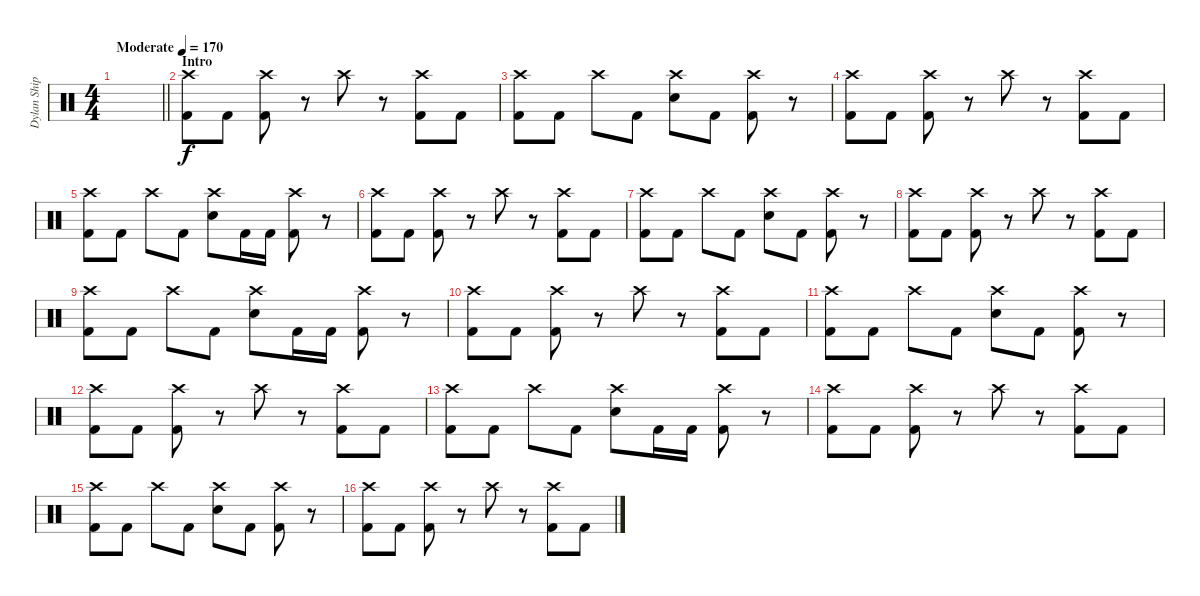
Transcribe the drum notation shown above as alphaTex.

\track ("Dylan Shippey" "Dylan Ship") {instrument percussion}
\staff {score}
\articulation defaults
\ts (4 4)
\tempo (170 "Moderate")
\clef neutral
\barLineRight lightlight
\ks c
|
\section ("" "Intro")
("Crash high (hit)" "Kick (hit) 2").8 "Kick (hit) 2".8 ("Crash high (hit)" "Kick (hit) 2").8 r.8 "Crash high (hit)".8 r.8 ("Crash high (hit)" "Kick (hit) 2").8 "Kick (hit) 2".8 |
("Crash high (hit)" "Kick (hit) 2").8 "Kick (hit) 2".8 "Crash high (hit)".8 "Kick (hit) 2".8 ("Crash high (hit)" "Electric Snare (hit)").8 "Kick (hit) 2".8 ("Crash high (hit)" "Kick (hit) 2").8 r.8 |
("Crash high (hit)" "Kick (hit) 2").8 "Kick (hit) 2".8 ("Crash high (hit)" "Kick (hit) 2").8 r.8 "Crash high (hit)".8 r.8 ("Crash high (hit)" "Kick (hit) 2").8 "Kick (hit) 2".8 |
("Crash high (hit)" "Kick (hit) 2").8 "Kick (hit) 2".8 "Crash high (hit)".8 "Kick (hit) 2".8 ("Crash high (hit)" "Electric Snare (hit)").8 "Kick (hit) 2".16 "Kick (hit) 2".16 ("Crash high (hit)" "Kick (hit) 2").8 r.8 |
("Crash high (hit)" "Kick (hit) 2").8 "Kick (hit) 2".8 ("Crash high (hit)" "Kick (hit) 2").8 r.8 "Crash high (hit)".8 r.8 ("Crash high (hit)" "Kick (hit) 2").8 "Kick (hit) 2".8 |
("Crash high (hit)" "Kick (hit) 2").8 "Kick (hit) 2".8 "Crash high (hit)".8 "Kick (hit) 2".8 ("Crash high (hit)" "Electric Snare (hit)").8 "Kick (hit) 2".8 ("Crash high (hit)" "Kick (hit) 2").8 r.8 |
("Crash high (hit)" "Kick (hit) 2").8 "Kick (hit) 2".8 ("Crash high (hit)" "Kick (hit) 2").8 r.8 "Crash high (hit)".8 r.8 ("Crash high (hit)" "Kick (hit) 2").8 "Kick (hit) 2".8 |
("Crash high (hit)" "Kick (hit) 2").8 "Kick (hit) 2".8 "Crash high (hit)".8 "Kick (hit) 2".8 ("Crash high (hit)" "Electric Snare (hit)").8 "Kick (hit) 2".16 "Kick (hit) 2".16 ("Crash high (hit)" "Kick (hit) 2").8 r.8 |
("Crash high (hit)" "Kick (hit) 2").8 "Kick (hit) 2".8 ("Crash high (hit)" "Kick (hit) 2").8 r.8 "Crash high (hit)".8 r.8 ("Crash high (hit)" "Kick (hit) 2").8 "Kick (hit) 2".8 |
("Crash high (hit)" "Kick (hit) 2").8 "Kick (hit) 2".8 "Crash high (hit)".8 "Kick (hit) 2".8 ("Crash high (hit)" "Electric Snare (hit)").8 "Kick (hit) 2".8 ("Crash high (hit)" "Kick (hit) 2").8 r.8 |
("Crash high (hit)" "Kick (hit) 2").8 "Kick (hit) 2".8 ("Crash high (hit)" "Kick (hit) 2").8 r.8 "Crash high (hit)".8 r.8 ("Crash high (hit)" "Kick (hit) 2").8 "Kick (hit) 2".8 |
("Crash high (hit)" "Kick (hit) 2").8 "Kick (hit) 2".8 "Crash high (hit)".8 "Kick (hit) 2".8 ("Crash high (hit)" "Electric Snare (hit)").8 "Kick (hit) 2".16 "Kick (hit) 2".16 ("Crash high (hit)" "Kick (hit) 2").8 r.8 |
("Crash high (hit)" "Kick (hit) 2").8 "Kick (hit) 2".8 ("Crash high (hit)" "Kick (hit) 2").8 r.8 "Crash high (hit)".8 r.8 ("Crash high (hit)" "Kick (hit) 2").8 "Kick (hit) 2".8 |
("Crash high (hit)" "Kick (hit) 2").8 "Kick (hit) 2".8 "Crash high (hit)".8 "Kick (hit) 2".8 ("Crash high (hit)" "Electric Snare (hit)").8 "Kick (hit) 2".8 ("Crash high (hit)" "Kick (hit) 2").8 r.8 |
("Crash high (hit)" "Kick (hit) 2").8 "Kick (hit) 2".8 ("Crash high (hit)" "Kick (hit) 2").8 r.8 "Crash high (hit)".8 r.8 ("Crash high (hit)" "Kick (hit) 2").8 "Kick (hit) 2".8
